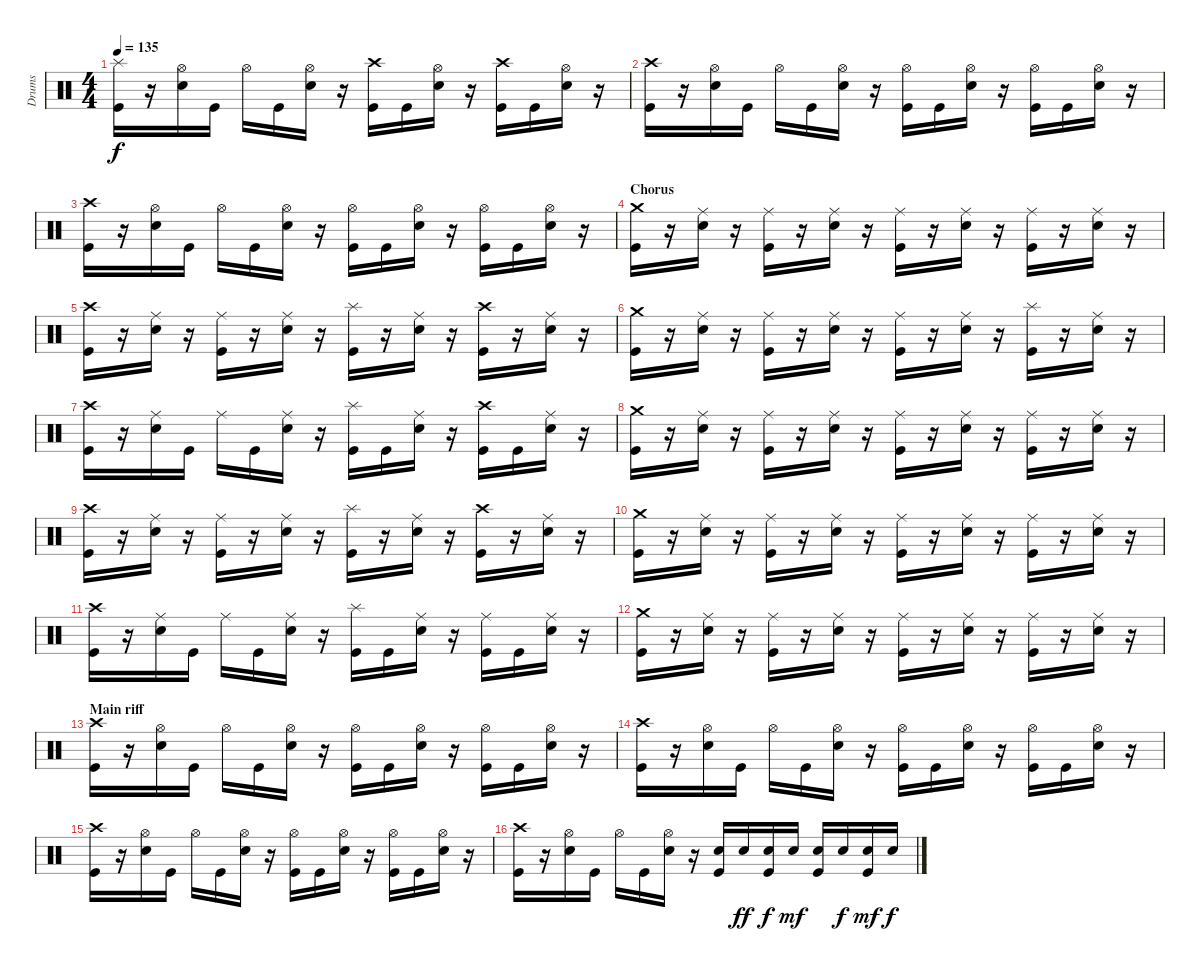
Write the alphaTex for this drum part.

\track ("Drums" "Drums") {instrument percussion}
\staff {score}
\articulation defaults
\ts (4 4)
\tempo 135
\clef neutral
\ks c
("Splash (hit)" "Kick (hit)").16{dy f} r.16 ("Hi-Hat (open)" "Snare (hit) 2").16 "Kick (hit)".16 "Hi-Hat (open)".16 "Kick (hit)".16 ("Hi-Hat (open)" "Snare (hit) 2").16 r.16 ("Crash high (hit)" "Kick (hit)").16 "Kick (hit)".16 ("Hi-Hat (open)" "Snare (hit) 2").16 r.16 ("Crash high (hit)" "Kick (hit)").16 "Kick (hit)".16 ("Hi-Hat (open)" "Snare (hit) 2").16 r.16 |
("Crash high (hit)" "Kick (hit)").16 r.16 ("Hi-Hat (open)" "Snare (hit) 2").16 "Kick (hit)".16 "Hi-Hat (open)".16 "Kick (hit)".16 ("Hi-Hat (open)" "Snare (hit) 2").16 r.16 ("Hi-Hat (open)" "Kick (hit)").16 "Kick (hit)".16 ("Hi-Hat (open)" "Snare (hit) 2").16 r.16 ("Hi-Hat (open)" "Kick (hit)").16 "Kick (hit)".16 ("Hi-Hat (open)" "Snare (hit) 2").16 r.16 |
("Crash high (hit)" "Kick (hit)").16 r.16 ("Hi-Hat (open)" "Snare (hit) 2").16 "Kick (hit)".16 "Hi-Hat (open)".16 "Kick (hit)".16 ("Hi-Hat (open)" "Snare (hit) 2").16 r.16 ("Hi-Hat (open)" "Kick (hit)").16 "Kick (hit)".16 ("Hi-Hat (open)" "Snare (hit) 2").16 r.16 ("Hi-Hat (open)" "Kick (hit)").16 "Kick (hit)".16 ("Hi-Hat (open)" "Snare (hit) 2").16 r.16 |
\section ("" "Chorus")
("Crash medium (hit)" "Kick (hit)").16 r.16 ("Ride (middle)" "Snare (hit) 2").16 r.16 ("Ride (middle)" "Kick (hit)").16 r.16 ("Ride (middle)" "Snare (hit) 2").16 r.16 ("Ride (middle)" "Kick (hit)").16 r.16 ("Ride (middle)" "Snare (hit) 2").16 r.16 ("Ride (middle)" "Kick (hit)").16 r.16 ("Ride (middle)" "Snare (hit) 2").16 r.16 |
("Crash high (hit)" "Kick (hit)").16 r.16 ("Ride (middle)" "Snare (hit) 2").16 r.16 ("Ride (middle)" "Kick (hit)").16 r.16 ("Ride (middle)" "Snare (hit) 2").16 r.16 ("Splash (hit)" "Kick (hit)").16 r.16 ("Ride (middle)" "Snare (hit) 2").16 r.16 ("Crash high (hit)" "Kick (hit)").16 r.16 ("Ride (middle)" "Snare (hit) 2").16 r.16 |
("Crash medium (hit)" "Kick (hit)").16 r.16 ("Ride (middle)" "Snare (hit) 2").16 r.16 ("Ride (middle)" "Kick (hit)").16 r.16 ("Ride (middle)" "Snare (hit) 2").16 r.16 ("Ride (middle)" "Kick (hit)").16 r.16 ("Ride (middle)" "Snare (hit) 2").16 r.16 ("Splash (hit)" "Kick (hit)").16 r.16 ("Ride (middle)" "Snare (hit) 2").16 r.16 |
("Crash high (hit)" "Kick (hit)").16 r.16 ("Ride (middle)" "Snare (hit) 2").16 "Kick (hit)".16 "Ride (middle)".16 "Kick (hit)".16 ("Ride (middle)" "Snare (hit) 2").16 r.16 ("Splash (hit)" "Kick (hit)").16 "Kick (hit)".16 ("Ride (middle)" "Snare (hit) 2").16 r.16 ("Crash high (hit)" "Kick (hit)").16 "Kick (hit)".16 ("Ride (middle)" "Snare (hit) 2").16 r.16 |
("Crash medium (hit)" "Kick (hit)").16 r.16 ("Ride (middle)" "Snare (hit) 2").16 r.16 ("Ride (middle)" "Kick (hit)").16 r.16 ("Ride (middle)" "Snare (hit) 2").16 r.16 ("Ride (middle)" "Kick (hit)").16 r.16 ("Ride (middle)" "Snare (hit) 2").16 r.16 ("Ride (middle)" "Kick (hit)").16 r.16 ("Ride (middle)" "Snare (hit) 2").16 r.16 |
("Crash high (hit)" "Kick (hit)").16 r.16 ("Ride (middle)" "Snare (hit) 2").16 r.16 ("Ride (middle)" "Kick (hit)").16 r.16 ("Ride (middle)" "Snare (hit) 2").16 r.16 ("Splash (hit)" "Kick (hit)").16 r.16 ("Ride (middle)" "Snare (hit) 2").16 r.16 ("Crash high (hit)" "Kick (hit)").16 r.16 ("Ride (middle)" "Snare (hit) 2").16 r.16 |
("Crash medium (hit)" "Kick (hit)").16 r.16 ("Ride (middle)" "Snare (hit) 2").16 r.16 ("Ride (middle)" "Kick (hit)").16 r.16 ("Ride (middle)" "Snare (hit) 2").16 r.16 ("Ride (middle)" "Kick (hit)").16 r.16 ("Ride (middle)" "Snare (hit) 2").16 r.16 ("Ride (middle)" "Kick (hit)").16 r.16 ("Ride (middle)" "Snare (hit) 2").16 r.16 |
("Crash high (hit)" "Kick (hit)").16 r.16 ("Ride (middle)" "Snare (hit) 2").16 "Kick (hit)".16 "Ride (middle)".16 "Kick (hit)".16 ("Ride (middle)" "Snare (hit) 2").16 r.16 ("Splash (hit)" "Kick (hit)").16 "Kick (hit)".16 ("Ride (middle)" "Snare (hit) 2").16 r.16 ("Ride (middle)" "Kick (hit)").16 "Kick (hit)".16 ("Ride (middle)" "Snare (hit) 2").16 r.16 |
("Crash medium (hit)" "Kick (hit)").16 r.16 ("Ride (middle)" "Snare (hit) 2").16 r.16 ("Ride (middle)" "Kick (hit)").16 r.16 ("Ride (middle)" "Snare (hit) 2").16 r.16 ("Ride (middle)" "Kick (hit)").16 r.16 ("Ride (middle)" "Snare (hit) 2").16 r.16 ("Ride (middle)" "Kick (hit)").16 r.16 ("Ride (middle)" "Snare (hit) 2").16 r.16 |
\section ("" "Main riff")
("Crash high (hit)" "Kick (hit)").16 r.16 ("Hi-Hat (open)" "Snare (hit) 2").16 "Kick (hit)".16 "Hi-Hat (open)".16 "Kick (hit)".16 ("Hi-Hat (open)" "Snare (hit) 2").16 r.16 ("Hi-Hat (open)" "Kick (hit)").16 "Kick (hit)".16 ("Hi-Hat (open)" "Snare (hit) 2").16 r.16 ("Hi-Hat (open)" "Kick (hit)").16 "Kick (hit)".16 ("Hi-Hat (open)" "Snare (hit) 2").16 r.16 |
("Crash high (hit)" "Kick (hit)").16 r.16 ("Hi-Hat (open)" "Snare (hit) 2").16 "Kick (hit)".16 "Hi-Hat (open)".16 "Kick (hit)".16 ("Hi-Hat (open)" "Snare (hit) 2").16 r.16 ("Hi-Hat (open)" "Kick (hit)").16 "Kick (hit)".16 ("Hi-Hat (open)" "Snare (hit) 2").16 r.16 ("Hi-Hat (open)" "Kick (hit)").16 "Kick (hit)".16 ("Hi-Hat (open)" "Snare (hit) 2").16 r.16 |
("Crash high (hit)" "Kick (hit)").16 r.16 ("Hi-Hat (open)" "Snare (hit) 2").16 "Kick (hit)".16 "Hi-Hat (open)".16 "Kick (hit)".16 ("Hi-Hat (open)" "Snare (hit) 2").16 r.16 ("Hi-Hat (open)" "Kick (hit)").16 "Kick (hit)".16 ("Hi-Hat (open)" "Snare (hit) 2").16 r.16 ("Hi-Hat (open)" "Kick (hit)").16 "Kick (hit)".16 ("Hi-Hat (open)" "Snare (hit) 2").16 r.16 |
("Crash high (hit)" "Kick (hit)").16 r.16 ("Hi-Hat (open)" "Snare (hit) 2").16 "Kick (hit)".16 "Hi-Hat (open)".16 "Kick (hit)".16 ("Hi-Hat (open)" "Snare (hit) 2").16 r.16 ("Snare (hit) 2" "Kick (hit)").16 "Snare (hit) 2".16{dy ff} ("Snare (hit) 2" "Kick (hit)").16{dy f} "Snare (hit) 2".16{dy mf} ("Snare (hit) 2" "Kick (hit)").16 "Snare (hit) 2".16{dy f} ("Snare (hit) 2" "Kick (hit)").16{dy mf} "Snare (hit) 2".16{dy f}
